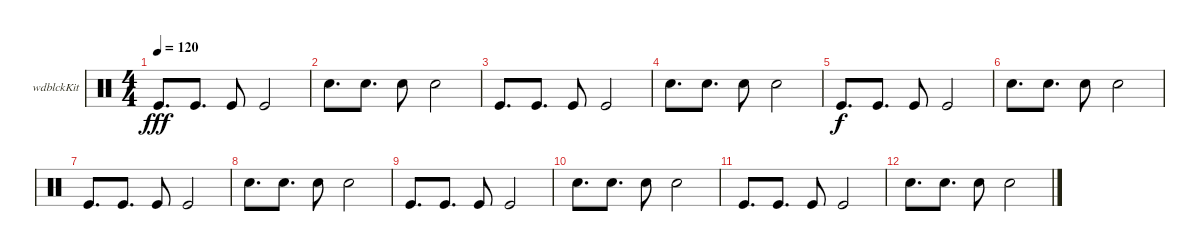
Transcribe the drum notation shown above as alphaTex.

\defaultSystemsLayout 4
\bracketExtendMode groupsimilarinstruments
\firstSystemTrackNameOrientation horizontal
\otherSystemsTrackNameOrientation horizontal
\track ("Woodblock" "wdblckKit") {instrument percussion}
\staff {score}
\articulation defaults
\ts (4 4)
\tempo 120
\clef neutral
\scale
0.333333
\ks c "Kick (hit)".8{d dy fff} "Kick (hit)".8{d} "Kick (hit)".8 "Kick (hit)".2
|
\scale
0.333333 "Snare (hit) 2".8{d} "Snare (hit) 2".8{d} "Snare (hit) 2".8 "Snare (hit) 2".2 |
\scale
0.333333 "Kick (hit)".8{d} "Kick (hit)".8{d} "Kick (hit)".8 "Kick (hit)".2 |
\scale
0.333333 "Snare (hit) 2".8{d} "Snare (hit) 2".8{d} "Snare (hit) 2".8 "Snare (hit) 2".2 |
\scale
0.333333 "Kick (hit)".8{d dy f} "Kick (hit)".8{d} "Kick (hit)".8 "Kick (hit)".2 |
\scale
0.333333 "Snare (hit) 2".8{d} "Snare (hit) 2".8{d} "Snare (hit) 2".8 "Snare (hit) 2".2 |
\scale
0.333333 "Kick (hit)".8{d} "Kick (hit)".8{d} "Kick (hit)".8 "Kick (hit)".2 |
\scale
0.333333 "Snare (hit) 2".8{d} "Snare (hit) 2".8{d} "Snare (hit) 2".8 "Snare (hit) 2".2 |
\scale
0.333333 "Kick (hit)".8{d} "Kick (hit)".8{d} "Kick (hit)".8 "Kick (hit)".2 |
\scale
0.333333 "Snare (hit) 2".8{d} "Snare (hit) 2".8{d} "Snare (hit) 2".8 "Snare (hit) 2".2 |
\scale
0.333333 "Kick (hit)".8{d} "Kick (hit)".8{d} "Kick (hit)".8 "Kick (hit)".2 |
\scale
0.333333 "Snare (hit) 2".8{d} "Snare (hit) 2".8{d} "Snare (hit) 2".8 "Snare (hit) 2".2 |
\scale
0.333333 |
\scale
0.333333 |
\scale
0.333333 |
\scale
0.333333
